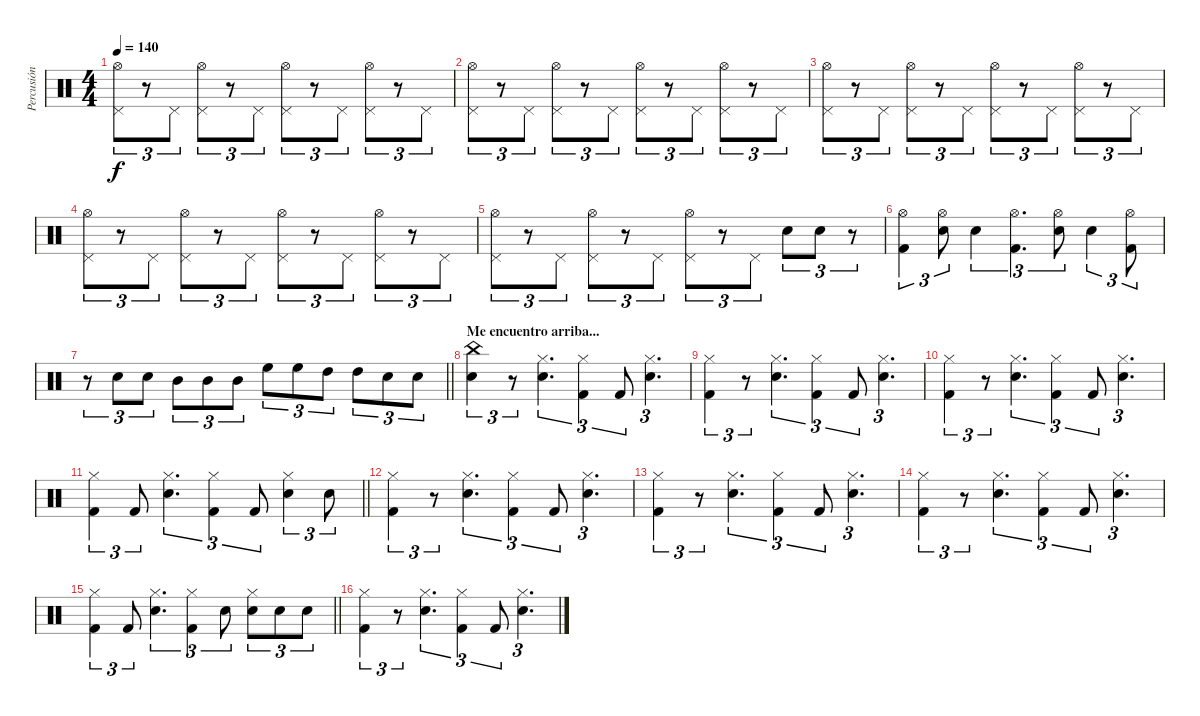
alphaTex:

\track ("Percusión" "Percusión") {instrument percussion}
\staff {score}
\articulation defaults
\ts (4 4)
\tempo 140
\clef neutral
\ks c
("Hi-Hat (open)" "Pedal Hi-Hat (hit)").8{tu (3 2) dy f} r.8{tu (3 2)} "Pedal Hi-Hat (hit)".8{tu (3 2)} ("Hi-Hat (open)" "Pedal Hi-Hat (hit)").8{tu (3 2)} r.8{tu (3 2)} "Pedal Hi-Hat (hit)".8{tu (3 2)} ("Hi-Hat (open)" "Pedal Hi-Hat (hit)").8{tu (3 2)} r.8{tu (3 2)} "Pedal Hi-Hat (hit)".8{tu (3 2)} ("Hi-Hat (open)" "Pedal Hi-Hat (hit)").8{tu (3 2)} r.8{tu (3 2)} "Pedal Hi-Hat (hit)".8{tu (3 2)} |
("Hi-Hat (open)" "Pedal Hi-Hat (hit)").8{tu (3 2)} r.8{tu (3 2)} "Pedal Hi-Hat (hit)".8{tu (3 2)} ("Hi-Hat (open)" "Pedal Hi-Hat (hit)").8{tu (3 2)} r.8{tu (3 2)} "Pedal Hi-Hat (hit)".8{tu (3 2)} ("Hi-Hat (open)" "Pedal Hi-Hat (hit)").8{tu (3 2)} r.8{tu (3 2)} "Pedal Hi-Hat (hit)".8{tu (3 2)} ("Hi-Hat (open)" "Pedal Hi-Hat (hit)").8{tu (3 2)} r.8{tu (3 2)} "Pedal Hi-Hat (hit)".8{tu (3 2)} |
("Hi-Hat (open)" "Pedal Hi-Hat (hit)").8{tu (3 2)} r.8{tu (3 2)} "Pedal Hi-Hat (hit)".8{tu (3 2)} ("Hi-Hat (open)" "Pedal Hi-Hat (hit)").8{tu (3 2)} r.8{tu (3 2)} "Pedal Hi-Hat (hit)".8{tu (3 2)} ("Hi-Hat (open)" "Pedal Hi-Hat (hit)").8{tu (3 2)} r.8{tu (3 2)} "Pedal Hi-Hat (hit)".8{tu (3 2)} ("Hi-Hat (open)" "Pedal Hi-Hat (hit)").8{tu (3 2)} r.8{tu (3 2)} "Pedal Hi-Hat (hit)".8{tu (3 2)} |
("Hi-Hat (open)" "Pedal Hi-Hat (hit)").8{tu (3 2)} r.8{tu (3 2)} "Pedal Hi-Hat (hit)".8{tu (3 2)} ("Hi-Hat (open)" "Pedal Hi-Hat (hit)").8{tu (3 2)} r.8{tu (3 2)} "Pedal Hi-Hat (hit)".8{tu (3 2)} ("Hi-Hat (open)" "Pedal Hi-Hat (hit)").8{tu (3 2)} r.8{tu (3 2)} "Pedal Hi-Hat (hit)".8{tu (3 2)} ("Hi-Hat (open)" "Pedal Hi-Hat (hit)").8{tu (3 2)} r.8{tu (3 2)} "Pedal Hi-Hat (hit)".8{tu (3 2)} |
("Hi-Hat (open)" "Pedal Hi-Hat (hit)").8{tu (3 2)} r.8{tu (3 2)} "Pedal Hi-Hat (hit)".8{tu (3 2)} ("Hi-Hat (open)" "Pedal Hi-Hat (hit)").8{tu (3 2)} r.8{tu (3 2)} "Pedal Hi-Hat (hit)".8{tu (3 2)} ("Hi-Hat (open)" "Pedal Hi-Hat (hit)").8{tu (3 2)} r.8{tu (3 2)} "Pedal Hi-Hat (hit)".8{tu (3 2)} "Snare (hit) 2".8{tu (3 2)} "Snare (hit) 2".8{tu (3 2)} r.8{tu (3 2)} |
("Hi-Hat (open)" "Kick (hit) 2").4{tu (3 2)} ("Hi-Hat (open)" "Snare (hit) 2").8{tu (3 2)} "Snare (hit) 2".4{tu (3 2)} ("Hi-Hat (open)" "Kick (hit) 2").4{d tu (3 2)} ("Hi-Hat (open)" "Snare (hit) 2").8{tu (3 2)} "Snare (hit) 2".4{tu (3 2)} ("Hi-Hat (open)" "Kick (hit) 2").8{tu (3 2)} |
\barLineRight lightlight
r.8{tu (3 2)} "Snare (hit) 2".8{tu (3 2)} "Snare (hit) 2".8{tu (3 2)} "Mid Tom (hit)".8{tu (3 2)} "Mid Tom (hit)".8{tu (3 2)} "Mid Tom (hit)".8{tu (3 2)} "High Floor Tom (hit)".8{tu (3 2)} "High Floor Tom (hit)".8{tu (3 2)} "High Tom (hit)".8{tu (3 2)} "High Tom (hit)".8{tu (3 2)} "Snare (hit) 2".8{tu (3 2)} "Snare (hit) 2".8{tu (3 2)} |
\section ("" "Me encuentro arriba...")
("China (hit)" "Snare (hit) 2").4{tu (3 2)} r.8{tu (3 2)} ("Hi-Hat (closed)" "Snare (hit) 2").4{d tu (3 2)} ("Hi-Hat (closed)" "Kick (hit) 2").4{tu (3 2)} "Kick (hit) 2".8{tu (3 2)} ("Hi-Hat (closed)" "Snare (hit) 2").4{d tu (3 2)} |
("Hi-Hat (closed)" "Kick (hit) 2").4{tu (3 2)} r.8{tu (3 2)} ("Hi-Hat (closed)" "Snare (hit) 2").4{d tu (3 2)} ("Hi-Hat (closed)" "Kick (hit) 2").4{tu (3 2)} "Kick (hit) 2".8{tu (3 2)} ("Hi-Hat (closed)" "Snare (hit) 2").4{d tu (3 2)} |
("Hi-Hat (closed)" "Kick (hit) 2").4{tu (3 2)} r.8{tu (3 2)} ("Hi-Hat (closed)" "Snare (hit) 2").4{d tu (3 2)} ("Hi-Hat (closed)" "Kick (hit) 2").4{tu (3 2)} "Kick (hit) 2".8{tu (3 2)} ("Hi-Hat (closed)" "Snare (hit) 2").4{d tu (3 2)} |
\barLineRight lightlight
("Hi-Hat (closed)" "Kick (hit) 2").4{tu (3 2)} "Kick (hit) 2".8{tu (3 2)} ("Hi-Hat (closed)" "Snare (hit) 2").4{d tu (3 2)} ("Hi-Hat (closed)" "Kick (hit) 2").4{tu (3 2)} "Kick (hit) 2".8{tu (3 2)} ("Hi-Hat (closed)" "Snare (hit) 2").4{tu (3 2)} "Snare (hit) 2".8{tu (3 2)} |
("Hi-Hat (closed)" "Kick (hit) 2").4{tu (3 2)} r.8{tu (3 2)} ("Hi-Hat (closed)" "Snare (hit) 2").4{d tu (3 2)} ("Hi-Hat (closed)" "Kick (hit) 2").4{tu (3 2)} "Kick (hit) 2".8{tu (3 2)} ("Hi-Hat (closed)" "Snare (hit) 2").4{d tu (3 2)} |
("Hi-Hat (closed)" "Kick (hit) 2").4{tu (3 2)} r.8{tu (3 2)} ("Hi-Hat (closed)" "Snare (hit) 2").4{d tu (3 2)} ("Hi-Hat (closed)" "Kick (hit) 2").4{tu (3 2)} "Kick (hit) 2".8{tu (3 2)} ("Hi-Hat (closed)" "Snare (hit) 2").4{d tu (3 2)} |
("Hi-Hat (closed)" "Kick (hit) 2").4{tu (3 2)} r.8{tu (3 2)} ("Hi-Hat (closed)" "Snare (hit) 2").4{d tu (3 2)} ("Hi-Hat (closed)" "Kick (hit) 2").4{tu (3 2)} "Kick (hit) 2".8{tu (3 2)} ("Hi-Hat (closed)" "Snare (hit) 2").4{d tu (3 2)} |
\barLineRight lightlight
("Hi-Hat (closed)" "Kick (hit) 2").4{tu (3 2)} "Kick (hit) 2".8{tu (3 2)} ("Hi-Hat (closed)" "Snare (hit) 2").4{d tu (3 2)} ("Hi-Hat (closed)" "Kick (hit) 2").4{tu (3 2)} "Snare (hit) 2".8{tu (3 2)} ("Hi-Hat (closed)" "Snare (hit) 2").8{tu (3 2)} "Snare (hit) 2".8{tu (3 2)} "Snare (hit) 2".8{tu (3 2)} |
("Hi-Hat (closed)" "Kick (hit) 2").4{tu (3 2)} r.8{tu (3 2)} ("Hi-Hat (closed)" "Snare (hit) 2").4{d tu (3 2)} ("Hi-Hat (closed)" "Kick (hit) 2").4{tu (3 2)} "Kick (hit) 2".8{tu (3 2)} ("Hi-Hat (closed)" "Snare (hit) 2").4{d tu (3 2)}
